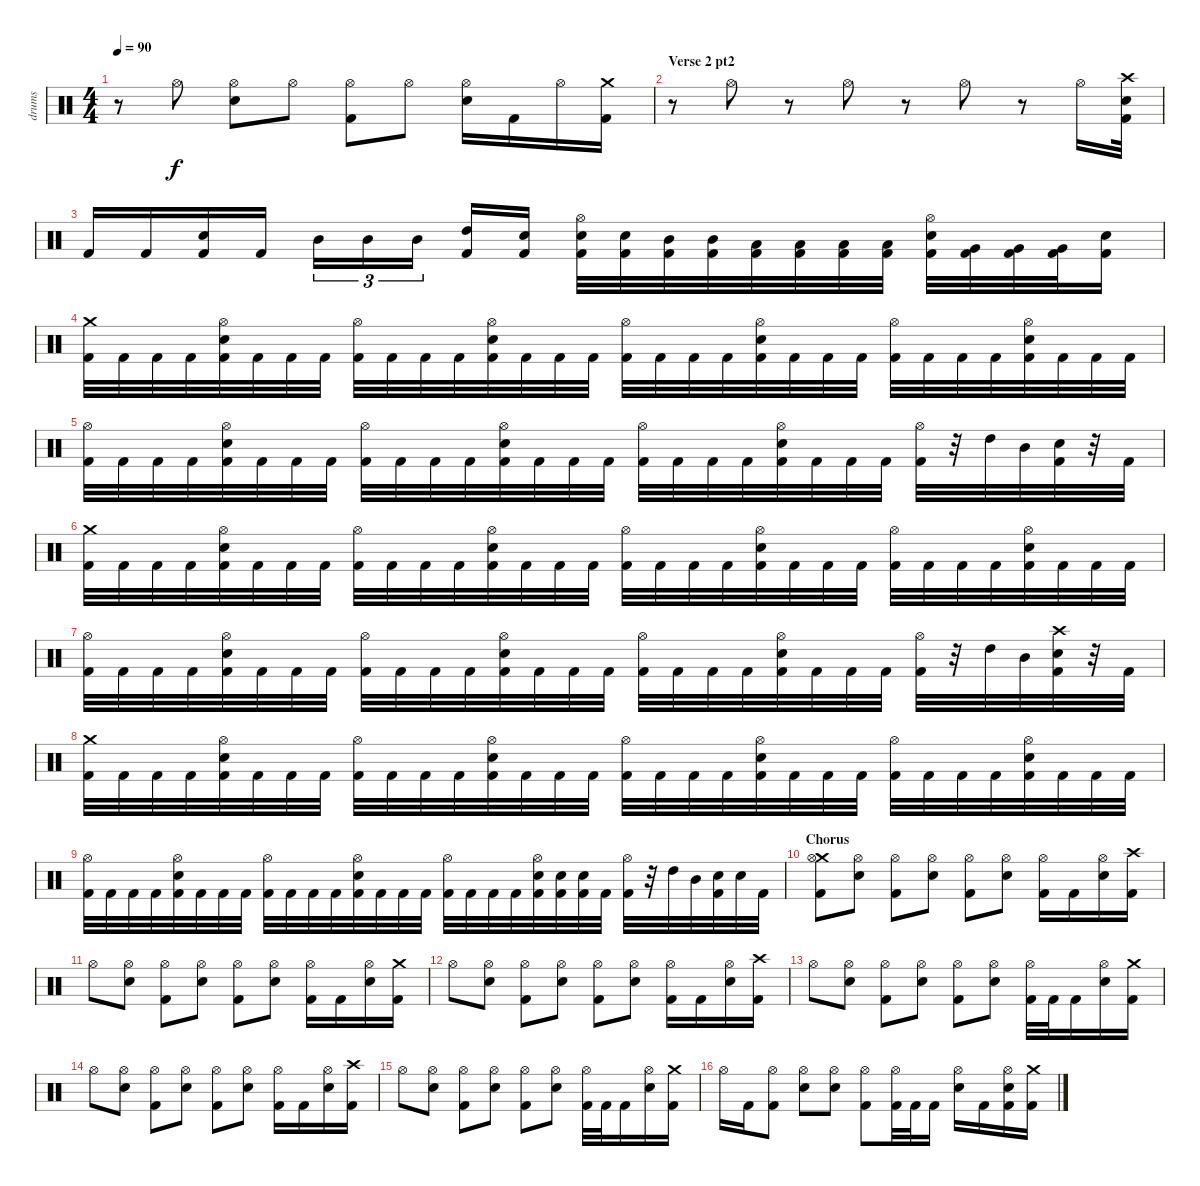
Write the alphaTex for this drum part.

\track ("drums" "drums") {instrument percussion}
\staff {score}
\articulation defaults
\ts (4 4)
\tempo 90
\clef neutral
\ks c
r.8{dy f} "Hi-Hat (open)".8 ("Hi-Hat (open)" "Electric Snare (hit)").8 "Hi-Hat (open)".8 ("Hi-Hat (open)" "Kick (hit) 2").8 "Hi-Hat (open)".8 ("Hi-Hat (open)" "Electric Snare (hit)").16 "Kick (hit) 2".16 "Hi-Hat (open)".16 ("Crash medium (hit)" "Kick (hit) 2").16 |
\section ("" "Verse 2 pt2")
r.8 "Hi-Hat (open)".8 r.8 "Hi-Hat (open)".8 r.8 "Hi-Hat (open)".8 r.8 "Hi-Hat (open)".16 ("Crash high (hit)" "Electric Snare (hit)" "Kick (hit) 2").32 |
"Kick (hit) 2".16 "Kick (hit) 2".16 ("Electric Snare (hit)" "Kick (hit) 2").16 "Kick (hit) 2".16 "Mid Tom (hit)".16{tu (3 2)} "Mid Tom (hit)".16{tu (3 2)} "Mid Tom (hit)".16{tu (3 2)} ("High Tom (hit)" "Kick (hit) 2").16 ("Electric Snare (hit)" "Kick (hit) 2").16 ("Hi-Hat (open)" "Electric Snare (hit)" "Kick (hit) 2").32 ("Electric Snare (hit)" "Kick (hit) 2").32 ("Mid Tom (hit)" "Kick (hit) 2").32 ("Mid Tom (hit)" "Kick (hit) 2").32 ("Low Tom (hit)" "Kick (hit) 2").32 ("Low Tom (hit)" "Kick (hit) 2").32 ("Low Tom (hit)" "Kick (hit) 2").32 ("Low Tom (hit)" "Kick (hit) 2").32 ("Hi-Hat (open)" "Electric Snare (hit)" "Kick (hit) 2").32 ("Very Low Tom (hit)" "Kick (hit) 2").32 ("Very Low Tom (hit)" "Kick (hit) 2").32 ("Very Low Tom (hit)" "Kick (hit) 2").32 ("Electric Snare (hit)" "Kick (hit) 2").16 |
("Crash medium (hit)" "Kick (hit) 2").32 "Kick (hit) 2".32 "Kick (hit) 2".32 "Kick (hit) 2".32 ("Hi-Hat (open)" "Electric Snare (hit)" "Kick (hit) 2").32 "Kick (hit) 2".32 "Kick (hit) 2".32 "Kick (hit) 2".32 ("Hi-Hat (open)" "Kick (hit) 2").32 "Kick (hit) 2".32 "Kick (hit) 2".32 "Kick (hit) 2".32 ("Hi-Hat (open)" "Electric Snare (hit)" "Kick (hit) 2").32 "Kick (hit) 2".32 "Kick (hit) 2".32 "Kick (hit) 2".32 ("Hi-Hat (open)" "Kick (hit) 2").32 "Kick (hit) 2".32 "Kick (hit) 2".32 "Kick (hit) 2".32 ("Hi-Hat (open)" "Electric Snare (hit)" "Kick (hit) 2").32 "Kick (hit) 2".32 "Kick (hit) 2".32 "Kick (hit) 2".32 ("Hi-Hat (open)" "Kick (hit) 2").32 "Kick (hit) 2".32 "Kick (hit) 2".32 "Kick (hit) 2".32 ("Hi-Hat (open)" "Electric Snare (hit)" "Kick (hit) 2").32 "Kick (hit) 2".32 "Kick (hit) 2".32 "Kick (hit) 2".32 |
("Hi-Hat (open)" "Kick (hit) 2").32 "Kick (hit) 2".32 "Kick (hit) 2".32 "Kick (hit) 2".32 ("Hi-Hat (open)" "Electric Snare (hit)" "Kick (hit) 2").32 "Kick (hit) 2".32 "Kick (hit) 2".32 "Kick (hit) 2".32 ("Hi-Hat (open)" "Kick (hit) 2").32 "Kick (hit) 2".32 "Kick (hit) 2".32 "Kick (hit) 2".32 ("Hi-Hat (open)" "Electric Snare (hit)" "Kick (hit) 2").32 "Kick (hit) 2".32 "Kick (hit) 2".32 "Kick (hit) 2".32 ("Hi-Hat (open)" "Kick (hit) 2").32 "Kick (hit) 2".32 "Kick (hit) 2".32 "Kick (hit) 2".32 ("Hi-Hat (open)" "Electric Snare (hit)" "Kick (hit) 2").32 "Kick (hit) 2".32 "Kick (hit) 2".32 "Kick (hit) 2".32 ("Hi-Hat (open)" "Kick (hit) 2").32 r.32 "High Tom (hit)".32 "Mid Tom (hit)".32 ("Electric Snare (hit)" "Kick (hit) 2").32 r.32 "Kick (hit) 2".32 |
("Crash medium (hit)" "Kick (hit) 2").32 "Kick (hit) 2".32 "Kick (hit) 2".32 "Kick (hit) 2".32 ("Hi-Hat (open)" "Electric Snare (hit)" "Kick (hit) 2").32 "Kick (hit) 2".32 "Kick (hit) 2".32 "Kick (hit) 2".32 ("Hi-Hat (open)" "Kick (hit) 2").32 "Kick (hit) 2".32 "Kick (hit) 2".32 "Kick (hit) 2".32 ("Hi-Hat (open)" "Electric Snare (hit)" "Kick (hit) 2").32 "Kick (hit) 2".32 "Kick (hit) 2".32 "Kick (hit) 2".32 ("Hi-Hat (open)" "Kick (hit) 2").32 "Kick (hit) 2".32 "Kick (hit) 2".32 "Kick (hit) 2".32 ("Hi-Hat (open)" "Electric Snare (hit)" "Kick (hit) 2").32 "Kick (hit) 2".32 "Kick (hit) 2".32 "Kick (hit) 2".32 ("Hi-Hat (open)" "Kick (hit) 2").32 "Kick (hit) 2".32 "Kick (hit) 2".32 "Kick (hit) 2".32 ("Hi-Hat (open)" "Electric Snare (hit)" "Kick (hit) 2").32 "Kick (hit) 2".32 "Kick (hit) 2".32 "Kick (hit) 2".32 |
("Hi-Hat (open)" "Kick (hit) 2").32 "Kick (hit) 2".32 "Kick (hit) 2".32 "Kick (hit) 2".32 ("Hi-Hat (open)" "Electric Snare (hit)" "Kick (hit) 2").32 "Kick (hit) 2".32 "Kick (hit) 2".32 "Kick (hit) 2".32 ("Hi-Hat (open)" "Kick (hit) 2").32 "Kick (hit) 2".32 "Kick (hit) 2".32 "Kick (hit) 2".32 ("Hi-Hat (open)" "Electric Snare (hit)" "Kick (hit) 2").32 "Kick (hit) 2".32 "Kick (hit) 2".32 "Kick (hit) 2".32 ("Hi-Hat (open)" "Kick (hit) 2").32 "Kick (hit) 2".32 "Kick (hit) 2".32 "Kick (hit) 2".32 ("Hi-Hat (open)" "Electric Snare (hit)" "Kick (hit) 2").32 "Kick (hit) 2".32 "Kick (hit) 2".32 "Kick (hit) 2".32 ("Hi-Hat (open)" "Kick (hit) 2").32 r.32 "High Tom (hit)".32 "Mid Tom (hit)".32 ("Crash high (hit)" "Electric Snare (hit)" "Kick (hit) 2").32 r.32 "Kick (hit) 2".32 |
("Crash medium (hit)" "Kick (hit) 2").32 "Kick (hit) 2".32 "Kick (hit) 2".32 "Kick (hit) 2".32 ("Hi-Hat (open)" "Electric Snare (hit)" "Kick (hit) 2").32 "Kick (hit) 2".32 "Kick (hit) 2".32 "Kick (hit) 2".32 ("Hi-Hat (open)" "Kick (hit) 2").32 "Kick (hit) 2".32 "Kick (hit) 2".32 "Kick (hit) 2".32 ("Hi-Hat (open)" "Electric Snare (hit)" "Kick (hit) 2").32 "Kick (hit) 2".32 "Kick (hit) 2".32 "Kick (hit) 2".32 ("Hi-Hat (open)" "Kick (hit) 2").32 "Kick (hit) 2".32 "Kick (hit) 2".32 "Kick (hit) 2".32 ("Hi-Hat (open)" "Electric Snare (hit)" "Kick (hit) 2").32 "Kick (hit) 2".32 "Kick (hit) 2".32 "Kick (hit) 2".32 ("Hi-Hat (open)" "Kick (hit) 2").32 "Kick (hit) 2".32 "Kick (hit) 2".32 "Kick (hit) 2".32 ("Hi-Hat (open)" "Electric Snare (hit)" "Kick (hit) 2").32 "Kick (hit) 2".32 "Kick (hit) 2".32 "Kick (hit) 2".32 |
("Hi-Hat (open)" "Kick (hit) 2").32 "Kick (hit) 2".32 "Kick (hit) 2".32 "Kick (hit) 2".32 ("Hi-Hat (open)" "Electric Snare (hit)" "Kick (hit) 2").32 "Kick (hit) 2".32 "Kick (hit) 2".32 "Kick (hit) 2".32 ("Hi-Hat (open)" "Kick (hit) 2").32 "Kick (hit) 2".32 "Kick (hit) 2".32 "Kick (hit) 2".32 ("Hi-Hat (open)" "Electric Snare (hit)" "Kick (hit) 2").32 "Kick (hit) 2".32 "Kick (hit) 2".32 "Kick (hit) 2".32 ("Hi-Hat (open)" "Kick (hit) 2").32 "Kick (hit) 2".32 "Kick (hit) 2".32 "Kick (hit) 2".32 ("Hi-Hat (open)" "Electric Snare (hit)" "Kick (hit) 2").32 ("Electric Snare (hit)" "Kick (hit) 2").32 ("Electric Snare (hit)" "Kick (hit) 2").32 "Kick (hit) 2".32 ("Hi-Hat (open)" "Kick (hit) 2").32 r.32 "High Tom (hit)".32 "Mid Tom (hit)".32 ("Electric Snare (hit)" "Kick (hit) 2").32 "Electric Snare (hit)".32 "Kick (hit) 2".32 |
\section ("" "Chorus")
("Crash medium (hit)" "Hi-Hat (open)" "Kick (hit) 2").8 ("Hi-Hat (open)" "Electric Snare (hit)").8 ("Hi-Hat (open)" "Kick (hit) 2").8 ("Hi-Hat (open)" "Electric Snare (hit)").8 ("Hi-Hat (open)" "Kick (hit) 2").8 ("Hi-Hat (open)" "Electric Snare (hit)").8 ("Hi-Hat (open)" "Kick (hit) 2").16 "Kick (hit) 2".16 ("Hi-Hat (open)" "Electric Snare (hit)").16 ("Crash high (hit)" "Kick (hit) 2").16 |
"Hi-Hat (open)".8 ("Hi-Hat (open)" "Electric Snare (hit)").8 ("Hi-Hat (open)" "Kick (hit) 2").8 ("Hi-Hat (open)" "Electric Snare (hit)").8 ("Hi-Hat (open)" "Kick (hit) 2").8 ("Hi-Hat (open)" "Electric Snare (hit)").8 ("Hi-Hat (open)" "Kick (hit) 2").16 "Kick (hit) 2".16 ("Hi-Hat (open)" "Electric Snare (hit)").16 ("Crash medium (hit)" "Kick (hit) 2").16 |
"Hi-Hat (open)".8 ("Hi-Hat (open)" "Electric Snare (hit)").8 ("Hi-Hat (open)" "Kick (hit) 2").8 ("Hi-Hat (open)" "Electric Snare (hit)").8 ("Hi-Hat (open)" "Kick (hit) 2").8 ("Hi-Hat (open)" "Electric Snare (hit)").8 ("Hi-Hat (open)" "Kick (hit) 2").16 "Kick (hit) 2".16 ("Hi-Hat (open)" "Electric Snare (hit)").16 ("Crash high (hit)" "Kick (hit) 2").16 |
"Hi-Hat (open)".8 ("Hi-Hat (open)" "Electric Snare (hit)").8 ("Hi-Hat (open)" "Kick (hit) 2").8 ("Hi-Hat (open)" "Electric Snare (hit)").8 ("Hi-Hat (open)" "Kick (hit) 2").8 ("Hi-Hat (open)" "Electric Snare (hit)").8 ("Hi-Hat (open)" "Kick (hit) 2").32 "Kick (hit) 2".32 "Kick (hit) 2".16 ("Hi-Hat (open)" "Electric Snare (hit)").16 ("Crash medium (hit)" "Kick (hit) 2").16 |
"Hi-Hat (open)".8 ("Hi-Hat (open)" "Electric Snare (hit)").8 ("Hi-Hat (open)" "Kick (hit) 2").8 ("Hi-Hat (open)" "Electric Snare (hit)").8 ("Hi-Hat (open)" "Kick (hit) 2").8 ("Hi-Hat (open)" "Electric Snare (hit)").8 ("Hi-Hat (open)" "Kick (hit) 2").16 "Kick (hit) 2".16 ("Hi-Hat (open)" "Electric Snare (hit)").16 ("Crash high (hit)" "Kick (hit) 2").16 |
"Hi-Hat (open)".8 ("Hi-Hat (open)" "Electric Snare (hit)").8 ("Hi-Hat (open)" "Kick (hit) 2").8 ("Hi-Hat (open)" "Electric Snare (hit)").8 ("Hi-Hat (open)" "Kick (hit) 2").8 ("Hi-Hat (open)" "Electric Snare (hit)").8 ("Hi-Hat (open)" "Kick (hit) 2").32 "Kick (hit) 2".32 "Kick (hit) 2".16 ("Hi-Hat (open)" "Electric Snare (hit)").16 ("Crash medium (hit)" "Kick (hit) 2").16 |
"Hi-Hat (open)".16 "Kick (hit) 2".16 ("Hi-Hat (open)" "Kick (hit) 2").8 ("Hi-Hat (open)" "Electric Snare (hit)").8 ("Hi-Hat (open)" "Electric Snare (hit)").8 ("Hi-Hat (open)" "Kick (hit) 2").8 ("Hi-Hat (open)" "Kick (hit) 2").32 "Kick (hit) 2".32 "Kick (hit) 2".16 ("Hi-Hat (open)" "Electric Snare (hit)").16 "Kick (hit) 2".16 ("Hi-Hat (open)" "Electric Snare (hit)" "Kick (hit) 2").16 ("Crash medium (hit)" "Kick (hit) 2").16
